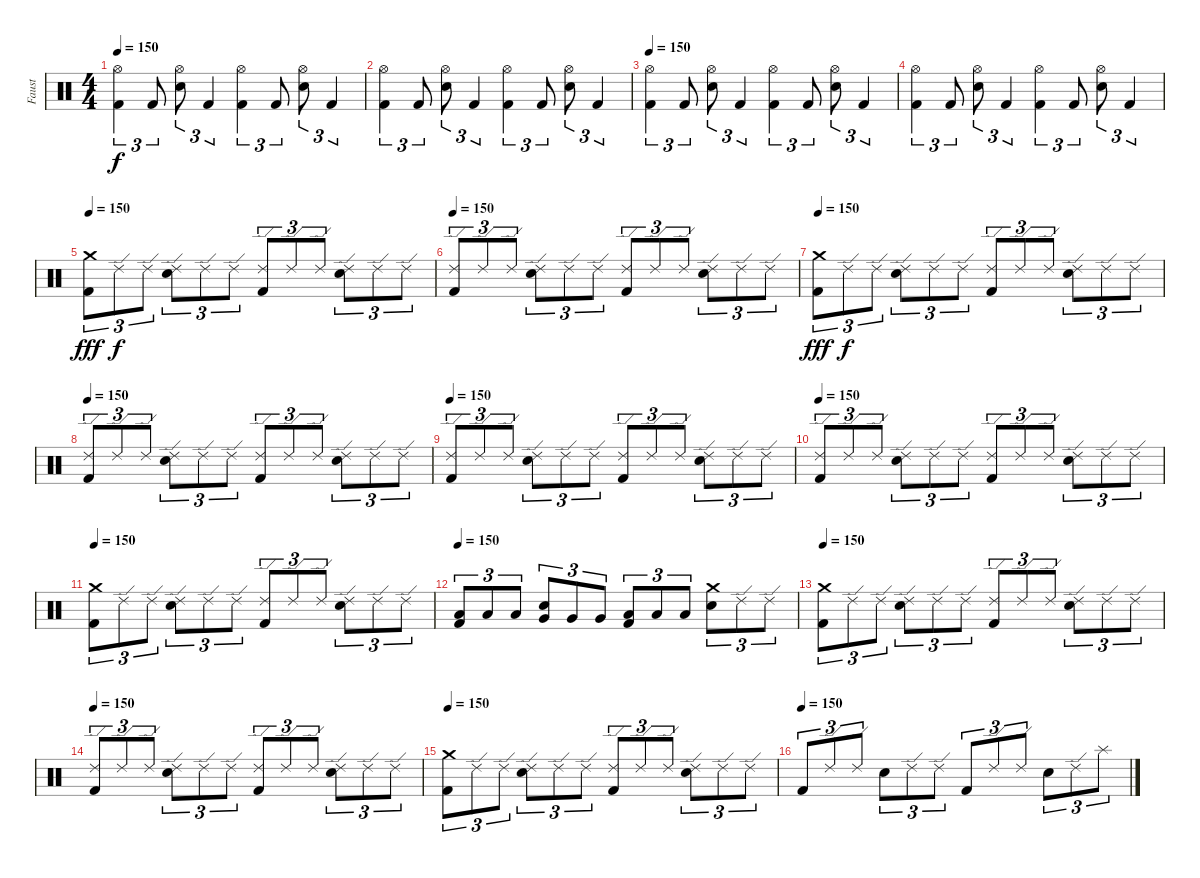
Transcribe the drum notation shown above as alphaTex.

\track ("Faust" "Faust") {instrument percussion}
\staff {score}
\articulation defaults
\ts (4 4)
\tempo 150
\clef neutral
\ks c
("Hi-Hat (open)" "Kick (hit) 2").4{tu (3 2) dy f} "Kick (hit) 2".8{tu (3 2)} ("Hi-Hat (open)" "Electric Snare (hit)").8{tu (3 2)} "Kick (hit) 2".4{tu (3 2)} ("Hi-Hat (open)" "Kick (hit) 2").4{tu (3 2)} "Kick (hit) 2".8{tu (3 2)} ("Hi-Hat (open)" "Electric Snare (hit)").8{tu (3 2)} "Kick (hit) 2".4{tu (3 2)} |
("Hi-Hat (open)" "Kick (hit) 2").4{tu (3 2)} "Kick (hit) 2".8{tu (3 2)} ("Hi-Hat (open)" "Electric Snare (hit)").8{tu (3 2)} "Kick (hit) 2".4{tu (3 2)} ("Hi-Hat (open)" "Kick (hit) 2").4{tu (3 2)} "Kick (hit) 2".8{tu (3 2)} ("Hi-Hat (open)" "Electric Snare (hit)").8{tu (3 2)} "Kick (hit) 2".4{tu (3 2)} |
\tempo 150
("Hi-Hat (open)" "Kick (hit) 2").4{tu (3 2)} "Kick (hit) 2".8{tu (3 2)} ("Hi-Hat (open)" "Electric Snare (hit)").8{tu (3 2)} "Kick (hit) 2".4{tu (3 2)} ("Hi-Hat (open)" "Kick (hit) 2").4{tu (3 2)} "Kick (hit) 2".8{tu (3 2)} ("Hi-Hat (open)" "Electric Snare (hit)").8{tu (3 2)} "Kick (hit) 2".4{tu (3 2)} |
("Hi-Hat (open)" "Kick (hit) 2").4{tu (3 2)} "Kick (hit) 2".8{tu (3 2)} ("Hi-Hat (open)" "Electric Snare (hit)").8{tu (3 2)} "Kick (hit) 2".4{tu (3 2)} ("Hi-Hat (open)" "Kick (hit) 2").4{tu (3 2)} "Kick (hit) 2".8{tu (3 2)} ("Hi-Hat (open)" "Electric Snare (hit)").8{tu (3 2)} "Kick (hit) 2".4{tu (3 2)} |
\tempo 150
("Crash medium (hit)" "Kick (hit) 2").8{tu (3 2) dy fff} "Ride (edge) 2".8{tu (3 2) dy f} "Ride (edge) 2".8{tu (3 2)} ("Ride (edge) 2" "Electric Snare (hit)").8{tu (3 2)} "Ride (edge) 2".8{tu (3 2)} "Ride (edge) 2".8{tu (3 2)} ("Ride (edge) 2" "Kick (hit) 2").8{tu (3 2)} "Ride (edge) 2".8{tu (3 2)} "Ride (edge) 2".8{tu (3 2)} ("Ride (edge) 2" "Electric Snare (hit)").8{tu (3 2)} "Ride (edge) 2".8{tu (3 2)} "Ride (edge) 2".8{tu (3 2)} |
\tempo 150
("Ride (edge) 2" "Kick (hit) 2").8{tu (3 2)} "Ride (edge) 2".8{tu (3 2)} "Ride (edge) 2".8{tu (3 2)} ("Ride (edge) 2" "Electric Snare (hit)").8{tu (3 2)} "Ride (edge) 2".8{tu (3 2)} "Ride (edge) 2".8{tu (3 2)} ("Ride (edge) 2" "Kick (hit) 2").8{tu (3 2)} "Ride (edge) 2".8{tu (3 2)} "Ride (edge) 2".8{tu (3 2)} ("Ride (edge) 2" "Electric Snare (hit)").8{tu (3 2)} "Ride (edge) 2".8{tu (3 2)} "Ride (edge) 2".8{tu (3 2)} |
\tempo 150
("Crash medium (hit)" "Kick (hit) 2").8{tu (3 2) dy fff} "Ride (edge) 2".8{tu (3 2) dy f} "Ride (edge) 2".8{tu (3 2)} ("Ride (edge) 2" "Electric Snare (hit)").8{tu (3 2)} "Ride (edge) 2".8{tu (3 2)} "Ride (edge) 2".8{tu (3 2)} ("Ride (edge) 2" "Kick (hit) 2").8{tu (3 2)} "Ride (edge) 2".8{tu (3 2)} "Ride (edge) 2".8{tu (3 2)} ("Ride (edge) 2" "Electric Snare (hit)").8{tu (3 2)} "Ride (edge) 2".8{tu (3 2)} "Ride (edge) 2".8{tu (3 2)} |
\tempo 150
("Ride (edge) 2" "Kick (hit) 2").8{tu (3 2)} "Ride (edge) 2".8{tu (3 2)} "Ride (edge) 2".8{tu (3 2)} ("Ride (edge) 2" "Electric Snare (hit)").8{tu (3 2)} "Ride (edge) 2".8{tu (3 2)} "Ride (edge) 2".8{tu (3 2)} ("Ride (edge) 2" "Kick (hit) 2").8{tu (3 2)} "Ride (edge) 2".8{tu (3 2)} "Ride (edge) 2".8{tu (3 2)} ("Ride (edge) 2" "Electric Snare (hit)").8{tu (3 2)} "Ride (edge) 2".8{tu (3 2)} "Ride (edge) 2".8{tu (3 2)} |
\tempo 150
("Ride (edge) 2" "Kick (hit) 2").8{tu (3 2)} "Ride (edge) 2".8{tu (3 2)} "Ride (edge) 2".8{tu (3 2)} ("Ride (edge) 2" "Electric Snare (hit)").8{tu (3 2)} "Ride (edge) 2".8{tu (3 2)} "Ride (edge) 2".8{tu (3 2)} ("Ride (edge) 2" "Kick (hit) 2").8{tu (3 2)} "Ride (edge) 2".8{tu (3 2)} "Ride (edge) 2".8{tu (3 2)} ("Ride (edge) 2" "Electric Snare (hit)").8{tu (3 2)} "Ride (edge) 2".8{tu (3 2)} "Ride (edge) 2".8{tu (3 2)} |
\tempo 150
("Ride (edge) 2" "Kick (hit) 2").8{tu (3 2)} "Ride (edge) 2".8{tu (3 2)} "Ride (edge) 2".8{tu (3 2)} ("Ride (edge) 2" "Electric Snare (hit)").8{tu (3 2)} "Ride (edge) 2".8{tu (3 2)} "Ride (edge) 2".8{tu (3 2)} ("Ride (edge) 2" "Kick (hit) 2").8{tu (3 2)} "Ride (edge) 2".8{tu (3 2)} "Ride (edge) 2".8{tu (3 2)} ("Ride (edge) 2" "Electric Snare (hit)").8{tu (3 2)} "Ride (edge) 2".8{tu (3 2)} "Ride (edge) 2".8{tu (3 2)} |
\tempo 150
("Crash medium (hit)" "Kick (hit) 2").8{tu (3 2)} "Ride (edge) 2".8{tu (3 2)} "Ride (edge) 2".8{tu (3 2)} ("Ride (edge) 2" "Electric Snare (hit)").8{tu (3 2)} "Ride (edge) 2".8{tu (3 2)} "Ride (edge) 2".8{tu (3 2)} ("Ride (edge) 2" "Kick (hit) 2").8{tu (3 2)} "Ride (edge) 2".8{tu (3 2)} "Ride (edge) 2".8{tu (3 2)} ("Ride (edge) 2" "Electric Snare (hit)").8{tu (3 2)} "Ride (edge) 2".8{tu (3 2)} "Ride (edge) 2".8{tu (3 2)} |
\tempo 150
("Low Tom (hit)" "Kick (hit) 2").8{tu (3 2)} "Low Tom (hit)".8{tu (3 2)} "Low Tom (hit)".8{tu (3 2)} ("Very Low Tom (hit)" "Electric Snare (hit)").8{tu (3 2)} "Very Low Tom (hit)".8{tu (3 2)} "Very Low Tom (hit)".8{tu (3 2)} ("Low Floor Tom (hit)" "Kick (hit) 2").8{tu (3 2)} "Low Floor Tom (hit)".8{tu (3 2)} "Low Floor Tom (hit)".8{tu (3 2)} ("Crash medium (hit)" "Electric Snare (hit)").8{tu (3 2)} "Ride (edge) 2".8{tu (3 2)} "Ride (edge) 2".8{tu (3 2)} |
\tempo 150
("Crash medium (hit)" "Kick (hit) 2").8{tu (3 2)} "Ride (edge) 2".8{tu (3 2)} "Ride (edge) 2".8{tu (3 2)} ("Ride (edge) 2" "Electric Snare (hit)").8{tu (3 2)} "Ride (edge) 2".8{tu (3 2)} "Ride (edge) 2".8{tu (3 2)} ("Ride (edge) 2" "Kick (hit) 2").8{tu (3 2)} "Ride (edge) 2".8{tu (3 2)} "Ride (edge) 2".8{tu (3 2)} ("Ride (edge) 2" "Electric Snare (hit)").8{tu (3 2)} "Ride (edge) 2".8{tu (3 2)} "Ride (edge) 2".8{tu (3 2)} |
\tempo 150
("Ride (edge) 2" "Kick (hit) 2").8{tu (3 2)} "Ride (edge) 2".8{tu (3 2)} "Ride (edge) 2".8{tu (3 2)} ("Ride (edge) 2" "Electric Snare (hit)").8{tu (3 2)} "Ride (edge) 2".8{tu (3 2)} "Ride (edge) 2".8{tu (3 2)} ("Ride (edge) 2" "Kick (hit) 2").8{tu (3 2)} "Ride (edge) 2".8{tu (3 2)} "Ride (edge) 2".8{tu (3 2)} ("Ride (edge) 2" "Electric Snare (hit)").8{tu (3 2)} "Ride (edge) 2".8{tu (3 2)} "Ride (edge) 2".8{tu (3 2)} |
\tempo 150
("Crash medium (hit)" "Kick (hit) 2").8{tu (3 2)} "Ride (edge) 2".8{tu (3 2)} "Ride (edge) 2".8{tu (3 2)} ("Ride (edge) 2" "Electric Snare (hit)").8{tu (3 2)} "Ride (edge) 2".8{tu (3 2)} "Ride (edge) 2".8{tu (3 2)} ("Ride (edge) 2" "Kick (hit) 2").8{tu (3 2)} "Ride (edge) 2".8{tu (3 2)} "Ride (edge) 2".8{tu (3 2)} ("Ride (edge) 2" "Electric Snare (hit)").8{tu (3 2)} "Ride (edge) 2".8{tu (3 2)} "Ride (edge) 2".8{tu (3 2)} |
\tempo (150)
"Kick (hit) 2".8{tu (3 2)} "Ride (edge) 2".8{tu (3 2)} "Ride (edge) 2".8{tu (3 2)} "Electric Snare (hit)".8{tu (3 2)} "Ride (edge) 2".8{tu (3 2)} "Ride (edge) 2".8{tu (3 2)} "Kick (hit) 2".8{tu (3 2)} "Ride (edge) 2".8{tu (3 2)} "Ride (edge) 2".8{tu (3 2)} "Electric Snare (hit)".8{tu (3 2)} "Ride (edge) 2".8{tu (3 2)} "Splash (hit)".8{tu (3 2)}
